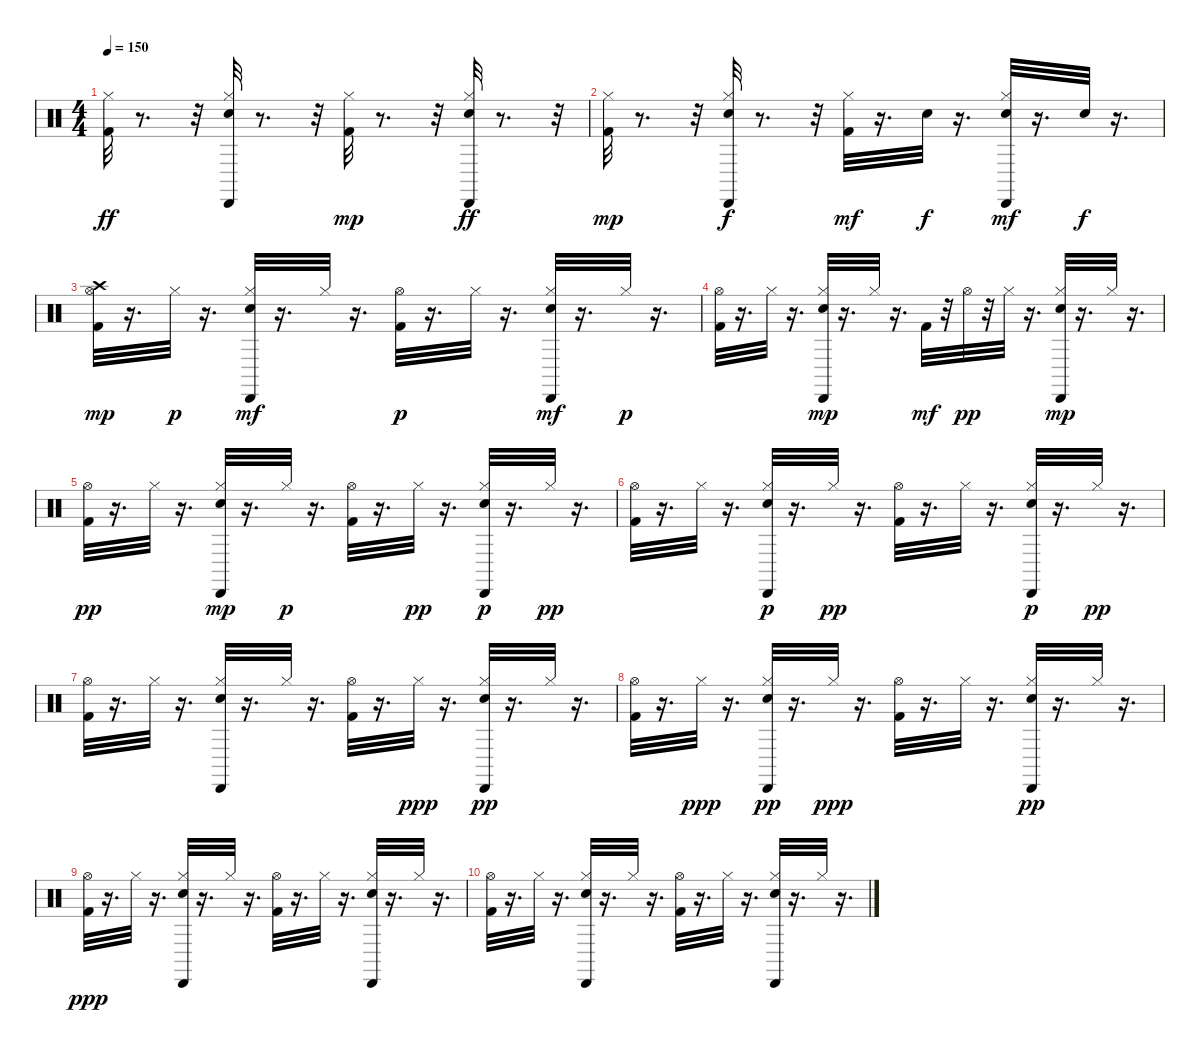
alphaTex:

\track "" {instrument percussion}
\staff {score}
\articulation defaults
\ts (4 4)
\tempo 150
\clef neutral
\ks c
("Kick (hit) 2" "Hi-Hat (closed)").32{dy ff} r.8{d} r.32 ("Hi-Hat (closed)" "Snare (hit) 2" "Cabasa (hit)").32 r.8{d} r.32 ("Kick (hit) 2" "Hi-Hat (closed)").32{dy mp} r.8{d} r.32 ("Hi-Hat (closed)" "Snare (hit) 2" "Cabasa (hit)").32{dy ff} r.8{d} r.32 |
("Kick (hit) 2" "Hi-Hat (closed)").32{dy mp} r.8{d} r.32 ("Hi-Hat (closed)" "Snare (hit) 2" "Cabasa (hit)").32{dy f} r.8{d} r.32 ("Kick (hit) 2" "Hi-Hat (closed)").32{dy mf} r.16{d} "Snare (hit) 2".32{dy f} r.16{d} ("Hi-Hat (closed)" "Snare (hit) 2" "Cabasa (hit)").32{dy mf} r.16{d} "Snare (hit) 2".32{dy f} r.16{d} |
("Kick (hit) 2" "Hi-Hat (open)" "Crash high (hit)").32{dy mp} r.16{d} "Hi-Hat (closed)".32{dy p} r.16{d} ("Hi-Hat (closed)" "Snare (hit) 2" "Cabasa (hit)").32{dy mf} r.16{d} "Hi-Hat (closed)".32 r.16{d} ("Kick (hit) 2" "Hi-Hat (open)").32{dy p} r.16{d} "Hi-Hat (closed)".32 r.16{d} ("Hi-Hat (closed)" "Snare (hit) 2" "Cabasa (hit)").32{dy mf} r.16{d} "Hi-Hat (closed)".32{dy p} r.16{d} |
("Kick (hit) 2" "Hi-Hat (open)").32 r.16{d} "Hi-Hat (closed)".32 r.16{d} ("Hi-Hat (closed)" "Snare (hit) 2" "Cabasa (hit)").32{dy mp} r.16{d} "Hi-Hat (closed)".32 r.16{d} "Kick (hit) 2".32{dy mf} r.32 "Hi-Hat (open)".32{dy pp} r.32 "Hi-Hat (closed)".32 r.16{d} ("Hi-Hat (closed)" "Snare (hit) 2" "Cabasa (hit)").32{dy mp} r.16{d} "Hi-Hat (closed)".32 r.16{d} |
("Kick (hit) 2" "Hi-Hat (open)").32{dy pp} r.16{d} "Hi-Hat (closed)".32 r.16{d} ("Hi-Hat (closed)" "Snare (hit) 2" "Cabasa (hit)").32{dy mp} r.16{d} "Hi-Hat (closed)".32{dy p} r.16{d} ("Kick (hit) 2" "Hi-Hat (open)").32 r.16{d} "Hi-Hat (closed)".32{dy pp} r.16{d} ("Hi-Hat (closed)" "Snare (hit) 2" "Cabasa (hit)").32{dy p} r.16{d} "Hi-Hat (closed)".32{dy pp} r.16{d} |
("Kick (hit) 2" "Hi-Hat (open)").32 r.16{d} "Hi-Hat (closed)".32 r.16{d} ("Hi-Hat (closed)" "Snare (hit) 2" "Cabasa (hit)").32{dy p} r.16{d} "Hi-Hat (closed)".32{dy pp} r.16{d} ("Kick (hit) 2" "Hi-Hat (open)").32 r.16{d} "Hi-Hat (closed)".32 r.16{d} ("Hi-Hat (closed)" "Snare (hit) 2" "Cabasa (hit)").32{dy p} r.16{d} "Hi-Hat (closed)".32{dy pp} r.16{d} |
("Kick (hit) 2" "Hi-Hat (open)").32 r.16{d} "Hi-Hat (closed)".32 r.16{d} ("Hi-Hat (closed)" "Snare (hit) 2" "Cabasa (hit)").32 r.16{d} "Hi-Hat (closed)".32 r.16{d} ("Kick (hit) 2" "Hi-Hat (open)").32 r.16{d} "Hi-Hat (closed)".32{dy ppp} r.16{d} ("Hi-Hat (closed)" "Snare (hit) 2" "Cabasa (hit)").32{dy pp} r.16{d} "Hi-Hat (closed)".32 r.16{d} |
("Kick (hit) 2" "Hi-Hat (open)").32 r.16{d} "Hi-Hat (closed)".32{dy ppp} r.16{d} ("Hi-Hat (closed)" "Snare (hit) 2" "Cabasa (hit)").32{dy pp} r.16{d} "Hi-Hat (closed)".32{dy ppp} r.16{d} ("Kick (hit) 2" "Hi-Hat (open)").32 r.16{d} "Hi-Hat (closed)".32 r.16{d} ("Hi-Hat (closed)" "Snare (hit) 2" "Cabasa (hit)").32{dy pp} r.16{d} "Hi-Hat (closed)".32 r.16{d} |
("Kick (hit) 2" "Hi-Hat (open)").32{dy ppp} r.16{d} "Hi-Hat (closed)".32 r.16{d} ("Hi-Hat (closed)" "Snare (hit) 2" "Cabasa (hit)").32 r.16{d} "Hi-Hat (closed)".32 r.16{d} ("Kick (hit) 2" "Hi-Hat (open)").32 r.16{d} "Hi-Hat (closed)".32 r.16{d} ("Hi-Hat (closed)" "Snare (hit) 2" "Cabasa (hit)").32 r.16{d} "Hi-Hat (closed)".32 r.16{d} |
("Kick (hit) 2" "Hi-Hat (open)").32 r.16{d} "Hi-Hat (closed)".32 r.16{d} ("Hi-Hat (closed)" "Snare (hit) 2" "Cabasa (hit)").32 r.16{d} "Hi-Hat (closed)".32 r.16{d} ("Kick (hit) 2" "Hi-Hat (open)").32 r.16{d} "Hi-Hat (closed)".32 r.16{d} ("Hi-Hat (closed)" "Snare (hit) 2" "Cabasa (hit)").32 r.16{d} "Hi-Hat (closed)".32 r.16{d}
